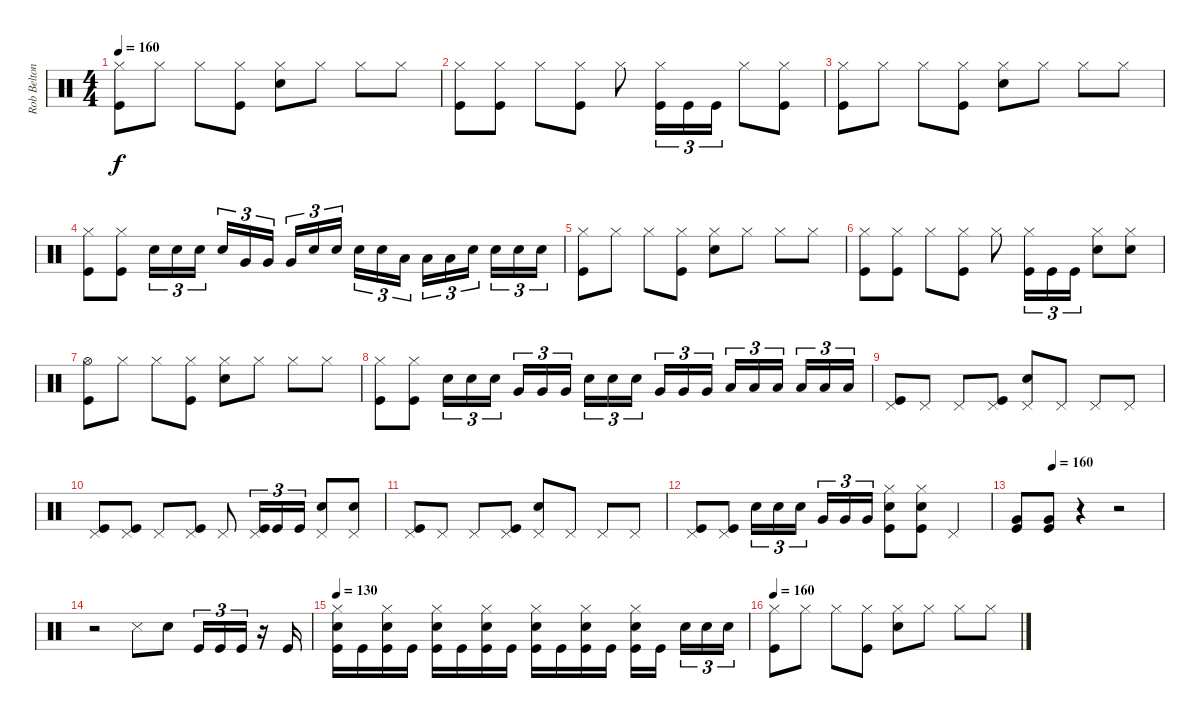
\track ("Rob Belton" "Rob Belton") {instrument percussion}
\staff {score}
\articulation defaults
\ts (4 4)
\tempo 160
\clef neutral
\ks c
("Hi-Hat (closed)" "Kick (hit)").8{dy f} "Hi-Hat (closed)".8 "Hi-Hat (closed)".8 ("Hi-Hat (closed)" "Kick (hit)").8 ("Hi-Hat (closed)" "Snare (hit) 2").8 "Hi-Hat (closed)".8 "Hi-Hat (closed)".8 "Hi-Hat (closed)".8 |
("Hi-Hat (closed)" "Kick (hit)").8 ("Hi-Hat (closed)" "Kick (hit)").8 "Hi-Hat (closed)".8 ("Hi-Hat (closed)" "Kick (hit)").8 "Hi-Hat (closed)".8 ("Hi-Hat (closed)" "Kick (hit)").16{tu (3 2)} "Kick (hit)".16{tu (3 2)} "Kick (hit)".16{tu (3 2)} "Hi-Hat (closed)".8 ("Hi-Hat (closed)" "Kick (hit)").8 |
("Hi-Hat (closed)" "Kick (hit)").8 "Hi-Hat (closed)".8 "Hi-Hat (closed)".8 ("Hi-Hat (closed)" "Kick (hit)").8 ("Hi-Hat (closed)" "Snare (hit) 2").8 "Hi-Hat (closed)".8 "Hi-Hat (closed)".8 "Hi-Hat (closed)".8 |
("Hi-Hat (closed)" "Kick (hit)").8 ("Hi-Hat (closed)" "Kick (hit)").8 "Snare (hit) 2".16{tu (3 2)} "Snare (hit) 2".16{tu (3 2)} "Snare (hit) 2".16{tu (3 2) beam splitsecondary} "Snare (hit) 2".16{tu (3 2)} "Very Low Tom (hit)".16{tu (3 2)} "Very Low Tom (hit)".16{tu (3 2)} "Very Low Tom (hit)".16{tu (3 2)} "Snare (hit) 2".16{tu (3 2)} "Snare (hit) 2".16{tu (3 2) beam splitsecondary} "Snare (hit) 2".16{tu (3 2)} "Snare (hit) 2".16{tu (3 2)} "Low Floor Tom (hit)".16{tu (3 2)} "Low Floor Tom (hit)".16{tu (3 2)} "Low Floor Tom (hit)".16{tu (3 2)} "Snare (hit) 2".16{tu (3 2) beam splitsecondary} "Snare (hit) 2".16{tu (3 2)} "Snare (hit) 2".16{tu (3 2)} "Snare (hit) 2".16{tu (3 2)} |
("Hi-Hat (closed)" "Kick (hit)").8 "Hi-Hat (closed)".8 "Hi-Hat (closed)".8 ("Hi-Hat (closed)" "Kick (hit)").8 ("Hi-Hat (closed)" "Snare (hit) 2").8 "Hi-Hat (closed)".8 "Hi-Hat (closed)".8 "Hi-Hat (closed)".8 |
("Hi-Hat (closed)" "Kick (hit)").8 ("Hi-Hat (closed)" "Kick (hit)").8 "Hi-Hat (closed)".8 ("Hi-Hat (closed)" "Kick (hit)").8 "Hi-Hat (closed)".8 ("Hi-Hat (closed)" "Kick (hit)").16{tu (3 2)} "Kick (hit)".16{tu (3 2)} "Kick (hit)".16{tu (3 2)} ("Hi-Hat (closed)" "Snare (hit) 2").8 ("Hi-Hat (closed)" "Snare (hit) 2").8 |
("Hi-Hat (open)" "Kick (hit)").8 "Hi-Hat (closed)".8 "Hi-Hat (closed)".8 ("Hi-Hat (closed)" "Kick (hit)").8 ("Hi-Hat (closed)" "Snare (hit) 2").8 "Hi-Hat (closed)".8 "Hi-Hat (closed)".8 "Hi-Hat (closed)".8 |
("Hi-Hat (closed)" "Kick (hit)").8 ("Hi-Hat (closed)" "Kick (hit)").8 "Snare (hit) 2".16{tu (3 2)} "Snare (hit) 2".16{tu (3 2)} "Snare (hit) 2".16{tu (3 2) beam splitsecondary} "Very Low Tom (hit)".16{tu (3 2)} "Very Low Tom (hit)".16{tu (3 2)} "Very Low Tom (hit)".16{tu (3 2)} "Snare (hit) 2".16{tu (3 2)} "Snare (hit) 2".16{tu (3 2)} "Snare (hit) 2".16{tu (3 2) beam splitsecondary} "Very Low Tom (hit)".16{tu (3 2)} "Very Low Tom (hit)".16{tu (3 2)} "Very Low Tom (hit)".16{tu (3 2)} "Low Floor Tom (hit)".16{tu (3 2)} "Low Floor Tom (hit)".16{tu (3 2)} "Low Floor Tom (hit)".16{tu (3 2) beam splitsecondary} "Low Floor Tom (hit)".16{tu (3 2)} "Low Floor Tom (hit)".16{tu (3 2)} "Low Floor Tom (hit)".16{tu (3 2)} |
("Pedal Hi-Hat (hit)" "Kick (hit)").8 "Pedal Hi-Hat (hit)".8 "Pedal Hi-Hat (hit)".8 ("Pedal Hi-Hat (hit)" "Kick (hit)").8 ("Pedal Hi-Hat (hit)" "Snare (hit) 2").8 "Pedal Hi-Hat (hit)".8 "Pedal Hi-Hat (hit)".8 "Pedal Hi-Hat (hit)".8 |
("Pedal Hi-Hat (hit)" "Kick (hit)").8 ("Pedal Hi-Hat (hit)" "Kick (hit)").8 "Pedal Hi-Hat (hit)".8 ("Pedal Hi-Hat (hit)" "Kick (hit)").8 "Pedal Hi-Hat (hit)".8 ("Pedal Hi-Hat (hit)" "Kick (hit)").16{tu (3 2)} "Kick (hit)".16{tu (3 2)} "Kick (hit)".16{tu (3 2)} ("Pedal Hi-Hat (hit)" "Snare (hit) 2").8 ("Pedal Hi-Hat (hit)" "Snare (hit) 2").8 |
("Pedal Hi-Hat (hit)" "Kick (hit)").8 "Pedal Hi-Hat (hit)".8 "Pedal Hi-Hat (hit)".8 ("Pedal Hi-Hat (hit)" "Kick (hit)").8 ("Pedal Hi-Hat (hit)" "Snare (hit) 2").8 "Pedal Hi-Hat (hit)".8 "Pedal Hi-Hat (hit)".8 "Pedal Hi-Hat (hit)".8 |
("Pedal Hi-Hat (hit)" "Kick (hit)").8 ("Pedal Hi-Hat (hit)" "Kick (hit)").8 "Snare (hit) 2".16{tu (3 2)} "Snare (hit) 2".16{tu (3 2)} "Snare (hit) 2".16{tu (3 2) beam splitsecondary} "Very Low Tom (hit)".16{tu (3 2)} "Very Low Tom (hit)".16{tu (3 2)} "Very Low Tom (hit)".16{tu (3 2)} ("Hi-Hat (closed)" "Snare (hit) 2" "Kick (hit)").8 ("Hi-Hat (closed)" "Snare (hit) 2" "Kick (hit)").8 "Pedal Hi-Hat (hit)".4 |
\tempo (160 0.25)
("Very Low Tom (hit)" "Kick (hit)").8 ("Very Low Tom (hit)" "Kick (hit)").8 r.4 r.2 |
r.2 "Snare (side stick) 3".8 "Snare (hit) 2".8 "Kick (hit)".16{tu (3 2)} "Kick (hit)".16{tu (3 2)} "Kick (hit)".16{tu (3 2)} r.16 "Kick (hit)".16 |
\tempo 130
("Hi-Hat (closed)" "Snare (hit) 2" "Kick (hit)").16 "Kick (hit)".16 ("Hi-Hat (closed)" "Snare (hit) 2" "Kick (hit)").16 "Kick (hit)".16 ("Hi-Hat (closed)" "Snare (hit) 2" "Kick (hit)").16 "Kick (hit)".16 ("Hi-Hat (closed)" "Snare (hit) 2" "Kick (hit)").16 "Kick (hit)".16 ("Hi-Hat (closed)" "Snare (hit) 2" "Kick (hit)").16 "Kick (hit)".16 ("Hi-Hat (closed)" "Snare (hit) 2" "Kick (hit)").16 "Kick (hit)".16 ("Hi-Hat (closed)" "Snare (hit) 2" "Kick (hit)").16 "Kick (hit)".16{beam splitsecondary} "Snare (hit) 2".16{tu (3 2)} "Snare (hit) 2".16{tu (3 2)} "Snare (hit) 2".16{tu (3 2)} |
\tempo 160
("Hi-Hat (closed)" "Kick (hit)").8 "Hi-Hat (closed)".8 "Hi-Hat (closed)".8 ("Hi-Hat (closed)" "Kick (hit)").8 ("Hi-Hat (closed)" "Snare (hit) 2").8 "Hi-Hat (closed)".8 "Hi-Hat (closed)".8 "Hi-Hat (closed)".8
